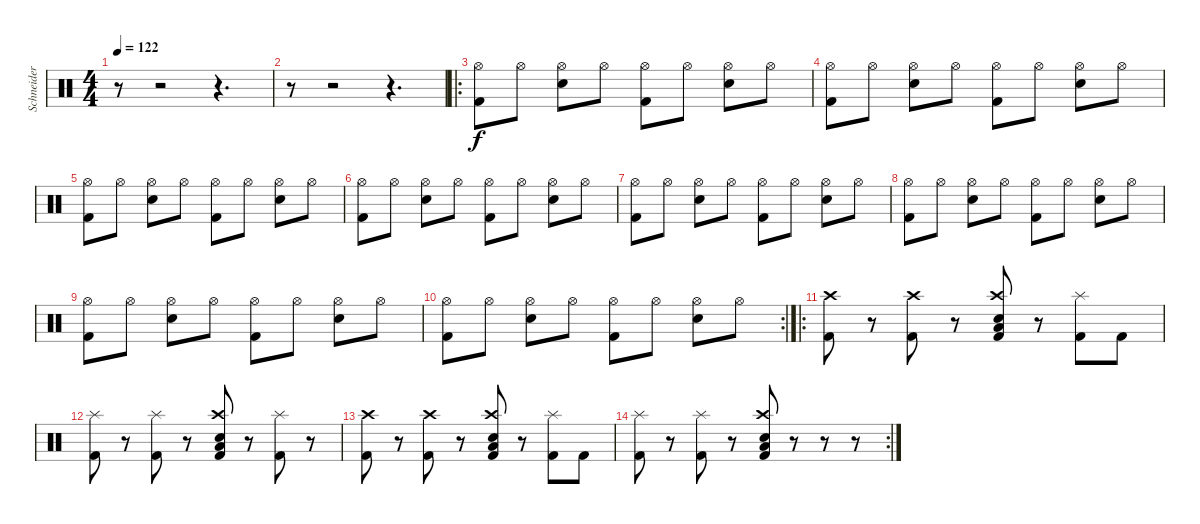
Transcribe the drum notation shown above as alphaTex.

\track ("Schneider" "Schneider") {instrument percussion}
\staff {score}
\articulation defaults
\ts (4 4)
\tempo 122
\clef neutral
\ks c
r.8{dy f} r.2 r.4{d} |
r.8 r.2 r.4{d} |
\ro
("Hi-Hat (open)" "Kick (hit) 2").8 "Hi-Hat (open)".8 ("Hi-Hat (open)" "Snare (hit) 2").8 "Hi-Hat (open)".8 ("Hi-Hat (open)" "Kick (hit) 2").8 "Hi-Hat (open)".8 ("Hi-Hat (open)" "Snare (hit) 2").8 "Hi-Hat (open)".8 |
("Hi-Hat (open)" "Kick (hit) 2").8 "Hi-Hat (open)".8 ("Hi-Hat (open)" "Snare (hit) 2").8 "Hi-Hat (open)".8 ("Hi-Hat (open)" "Kick (hit) 2").8 "Hi-Hat (open)".8 ("Hi-Hat (open)" "Snare (hit) 2").8 "Hi-Hat (open)".8 |
("Hi-Hat (open)" "Kick (hit) 2").8 "Hi-Hat (open)".8 ("Hi-Hat (open)" "Snare (hit) 2").8 "Hi-Hat (open)".8 ("Hi-Hat (open)" "Kick (hit) 2").8 "Hi-Hat (open)".8 ("Hi-Hat (open)" "Snare (hit) 2").8 "Hi-Hat (open)".8 |
("Hi-Hat (open)" "Kick (hit) 2").8 "Hi-Hat (open)".8 ("Hi-Hat (open)" "Snare (hit) 2").8 "Hi-Hat (open)".8 ("Hi-Hat (open)" "Kick (hit) 2").8 "Hi-Hat (open)".8 ("Hi-Hat (open)" "Snare (hit) 2").8 "Hi-Hat (open)".8 |
("Hi-Hat (open)" "Kick (hit) 2").8 "Hi-Hat (open)".8 ("Hi-Hat (open)" "Snare (hit) 2").8 "Hi-Hat (open)".8 ("Hi-Hat (open)" "Kick (hit) 2").8 "Hi-Hat (open)".8 ("Hi-Hat (open)" "Snare (hit) 2").8 "Hi-Hat (open)".8 |
("Hi-Hat (open)" "Kick (hit) 2").8 "Hi-Hat (open)".8 ("Hi-Hat (open)" "Snare (hit) 2").8 "Hi-Hat (open)".8 ("Hi-Hat (open)" "Kick (hit) 2").8 "Hi-Hat (open)".8 ("Hi-Hat (open)" "Snare (hit) 2").8 "Hi-Hat (open)".8 |
("Hi-Hat (open)" "Kick (hit) 2").8 "Hi-Hat (open)".8 ("Hi-Hat (open)" "Snare (hit) 2").8 "Hi-Hat (open)".8 ("Hi-Hat (open)" "Kick (hit) 2").8 "Hi-Hat (open)".8 ("Hi-Hat (open)" "Snare (hit) 2").8 "Hi-Hat (open)".8 |
\rc 2
("Hi-Hat (open)" "Kick (hit) 2").8 "Hi-Hat (open)".8 ("Hi-Hat (open)" "Snare (hit) 2").8 "Hi-Hat (open)".8 ("Hi-Hat (open)" "Kick (hit) 2").8 "Hi-Hat (open)".8 ("Hi-Hat (open)" "Snare (hit) 2").8 "Hi-Hat (open)".8 |
\ro
("Crash high (hit)" "Kick (hit) 2").8 r.8 ("Crash high (hit)" "Kick (hit) 2").8 r.8 ("Crash high (hit)" "Low Floor Tom (hit)" "Snare (hit) 2" "Kick (hit) 2").8 r.8 ("Splash (hit)" "Kick (hit) 2").8 "Kick (hit) 2".8 |
("Splash (hit)" "Kick (hit) 2").8 r.8 ("Splash (hit)" "Kick (hit) 2").8 r.8 ("Crash high (hit)" "Low Floor Tom (hit)" "Snare (hit) 2" "Kick (hit) 2").8 r.8 ("Splash (hit)" "Kick (hit) 2").8 r.8 |
("Crash high (hit)" "Kick (hit) 2").8 r.8 ("Crash high (hit)" "Kick (hit) 2").8 r.8 ("Crash high (hit)" "Low Floor Tom (hit)" "Snare (hit) 2" "Kick (hit) 2").8 r.8 ("Splash (hit)" "Kick (hit) 2").8 "Kick (hit) 2".8 |
\rc 2
("Splash (hit)" "Kick (hit) 2").8 r.8 ("Splash (hit)" "Kick (hit) 2").8 r.8 ("Crash high (hit)" "Low Floor Tom (hit)" "Snare (hit) 2" "Kick (hit) 2").8 r.8 r.8 r.8
